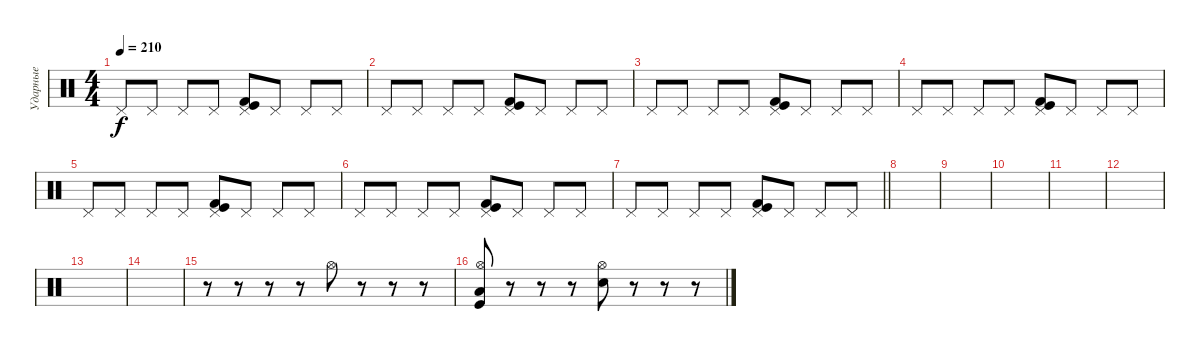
\track ("Ударные" "Ударные") {instrument percussion}
\staff {score}
\articulation defaults
\ts (4 4)
\tempo 210
\clef neutral
\ks c "Pedal Hi-Hat (hit)".8{dy f} "Pedal Hi-Hat (hit)".8 "Pedal Hi-Hat (hit)".8 "Pedal Hi-Hat (hit)".8
("Pedal Hi-Hat (hit)" "Kick (hit)" "Kick (hit) 2").8 "Pedal Hi-Hat (hit)".8 "Pedal Hi-Hat (hit)".8 "Pedal Hi-Hat (hit)".8 |
"Pedal Hi-Hat (hit)".8 "Pedal Hi-Hat (hit)".8 "Pedal Hi-Hat (hit)".8 "Pedal Hi-Hat (hit)".8 ("Pedal Hi-Hat (hit)" "Kick (hit)" "Kick (hit) 2").8 "Pedal Hi-Hat (hit)".8 "Pedal Hi-Hat (hit)".8 "Pedal Hi-Hat (hit)".8 |
"Pedal Hi-Hat (hit)".8 "Pedal Hi-Hat (hit)".8 "Pedal Hi-Hat (hit)".8 "Pedal Hi-Hat (hit)".8 ("Pedal Hi-Hat (hit)" "Kick (hit)" "Kick (hit) 2").8 "Pedal Hi-Hat (hit)".8 "Pedal Hi-Hat (hit)".8 "Pedal Hi-Hat (hit)".8 |
"Pedal Hi-Hat (hit)".8 "Pedal Hi-Hat (hit)".8 "Pedal Hi-Hat (hit)".8 "Pedal Hi-Hat (hit)".8 ("Pedal Hi-Hat (hit)" "Kick (hit)" "Kick (hit) 2").8 "Pedal Hi-Hat (hit)".8 "Pedal Hi-Hat (hit)".8 "Pedal Hi-Hat (hit)".8 |
"Pedal Hi-Hat (hit)".8 "Pedal Hi-Hat (hit)".8 "Pedal Hi-Hat (hit)".8 "Pedal Hi-Hat (hit)".8 ("Pedal Hi-Hat (hit)" "Kick (hit)" "Kick (hit) 2").8 "Pedal Hi-Hat (hit)".8 "Pedal Hi-Hat (hit)".8 "Pedal Hi-Hat (hit)".8 |
"Pedal Hi-Hat (hit)".8 "Pedal Hi-Hat (hit)".8 "Pedal Hi-Hat (hit)".8 "Pedal Hi-Hat (hit)".8 ("Pedal Hi-Hat (hit)" "Kick (hit)" "Kick (hit) 2").8 "Pedal Hi-Hat (hit)".8 "Pedal Hi-Hat (hit)".8 "Pedal Hi-Hat (hit)".8 |
\barLineRight lightlight "Pedal Hi-Hat (hit)".8 "Pedal Hi-Hat (hit)".8 "Pedal Hi-Hat (hit)".8 "Pedal Hi-Hat (hit)".8
("Pedal Hi-Hat (hit)" "Kick (hit)" "Kick (hit) 2").8 "Pedal Hi-Hat (hit)".8 "Pedal Hi-Hat (hit)".8 "Pedal Hi-Hat (hit)".8 |
|
|
|
|
|
|
|
r.8 r.8 r.8 r.8 "Hi-Hat (open)".8 r.8 r.8 r.8 |
("Hi-Hat (open)" "Low Tom (hit)" "Kick (hit)").8 r.8 r.8 r.8 ("Hi-Hat (open)" "Electric Snare (hit)").8 r.8 r.8 r.8
